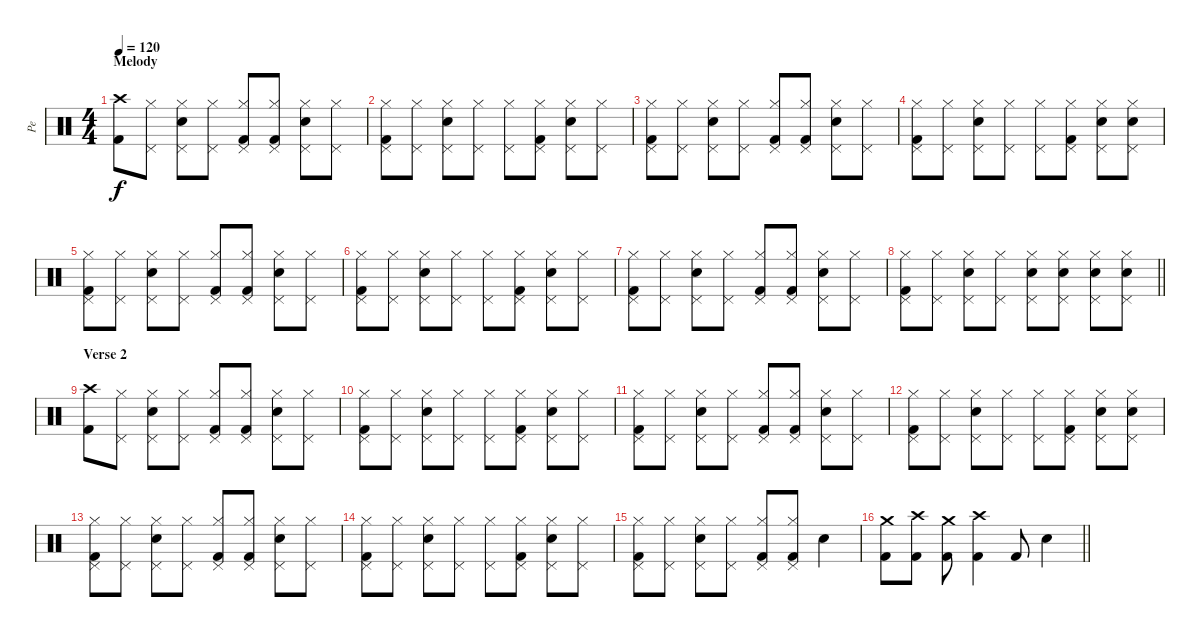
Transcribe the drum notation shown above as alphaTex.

\track ("Pe" "Pe") {instrument percussion}
\staff {score}
\articulation defaults
\ts (4 4)
\section ("" "Melody")
\tempo 120
\clef neutral
\ks c
("Kick (hit) 2" "Crash high (hit)").8{dy f} ("Hi-Hat (closed)" "Pedal Hi-Hat (hit)").8 ("Snare (hit) 2" "Hi-Hat (closed)" "Pedal Hi-Hat (hit)").8 ("Hi-Hat (closed)" "Pedal Hi-Hat (hit)").8 ("Kick (hit) 2" "Hi-Hat (closed)" "Pedal Hi-Hat (hit)").8 ("Kick (hit) 2" "Hi-Hat (closed)" "Pedal Hi-Hat (hit)").8 ("Snare (hit) 2" "Hi-Hat (closed)" "Pedal Hi-Hat (hit)").8 ("Hi-Hat (closed)" "Pedal Hi-Hat (hit)").8 |
("Kick (hit) 2" "Hi-Hat (closed)" "Pedal Hi-Hat (hit)").8 ("Hi-Hat (closed)" "Pedal Hi-Hat (hit)").8 ("Snare (hit) 2" "Hi-Hat (closed)" "Pedal Hi-Hat (hit)").8 ("Hi-Hat (closed)" "Pedal Hi-Hat (hit)").8 ("Hi-Hat (closed)" "Pedal Hi-Hat (hit)").8 ("Kick (hit) 2" "Hi-Hat (closed)" "Pedal Hi-Hat (hit)").8 ("Snare (hit) 2" "Hi-Hat (closed)" "Pedal Hi-Hat (hit)").8 ("Hi-Hat (closed)" "Pedal Hi-Hat (hit)").8 |
("Kick (hit) 2" "Hi-Hat (closed)" "Pedal Hi-Hat (hit)").8 ("Hi-Hat (closed)" "Pedal Hi-Hat (hit)").8 ("Snare (hit) 2" "Hi-Hat (closed)" "Pedal Hi-Hat (hit)").8 ("Hi-Hat (closed)" "Pedal Hi-Hat (hit)").8 ("Kick (hit) 2" "Hi-Hat (closed)" "Pedal Hi-Hat (hit)").8 ("Kick (hit) 2" "Hi-Hat (closed)" "Pedal Hi-Hat (hit)").8 ("Snare (hit) 2" "Hi-Hat (closed)" "Pedal Hi-Hat (hit)").8 ("Hi-Hat (closed)" "Pedal Hi-Hat (hit)").8 |
("Kick (hit) 2" "Hi-Hat (closed)" "Pedal Hi-Hat (hit)").8 ("Hi-Hat (closed)" "Pedal Hi-Hat (hit)").8 ("Snare (hit) 2" "Hi-Hat (closed)" "Pedal Hi-Hat (hit)").8 ("Hi-Hat (closed)" "Pedal Hi-Hat (hit)").8 ("Hi-Hat (closed)" "Pedal Hi-Hat (hit)").8 ("Kick (hit) 2" "Hi-Hat (closed)" "Pedal Hi-Hat (hit)").8 ("Snare (hit) 2" "Hi-Hat (closed)" "Pedal Hi-Hat (hit)").8 ("Snare (hit) 2" "Hi-Hat (closed)" "Pedal Hi-Hat (hit)").8 |
("Kick (hit) 2" "Hi-Hat (closed)" "Pedal Hi-Hat (hit)").8 ("Hi-Hat (closed)" "Pedal Hi-Hat (hit)").8 ("Snare (hit) 2" "Hi-Hat (closed)" "Pedal Hi-Hat (hit)").8 ("Hi-Hat (closed)" "Pedal Hi-Hat (hit)").8 ("Kick (hit) 2" "Hi-Hat (closed)" "Pedal Hi-Hat (hit)").8 ("Kick (hit) 2" "Hi-Hat (closed)" "Pedal Hi-Hat (hit)").8 ("Snare (hit) 2" "Hi-Hat (closed)" "Pedal Hi-Hat (hit)").8 ("Hi-Hat (closed)" "Pedal Hi-Hat (hit)").8 |
("Kick (hit) 2" "Hi-Hat (closed)" "Pedal Hi-Hat (hit)").8 ("Hi-Hat (closed)" "Pedal Hi-Hat (hit)").8 ("Snare (hit) 2" "Hi-Hat (closed)" "Pedal Hi-Hat (hit)").8 ("Hi-Hat (closed)" "Pedal Hi-Hat (hit)").8 ("Hi-Hat (closed)" "Pedal Hi-Hat (hit)").8 ("Kick (hit) 2" "Hi-Hat (closed)" "Pedal Hi-Hat (hit)").8 ("Snare (hit) 2" "Hi-Hat (closed)" "Pedal Hi-Hat (hit)").8 ("Hi-Hat (closed)" "Pedal Hi-Hat (hit)").8 |
("Kick (hit) 2" "Hi-Hat (closed)" "Pedal Hi-Hat (hit)").8 ("Hi-Hat (closed)" "Pedal Hi-Hat (hit)").8 ("Snare (hit) 2" "Hi-Hat (closed)" "Pedal Hi-Hat (hit)").8 ("Hi-Hat (closed)" "Pedal Hi-Hat (hit)").8 ("Kick (hit) 2" "Hi-Hat (closed)" "Pedal Hi-Hat (hit)").8 ("Kick (hit) 2" "Hi-Hat (closed)" "Pedal Hi-Hat (hit)").8 ("Snare (hit) 2" "Hi-Hat (closed)" "Pedal Hi-Hat (hit)").8 ("Hi-Hat (closed)" "Pedal Hi-Hat (hit)").8 |
\barLineRight lightlight
("Kick (hit) 2" "Hi-Hat (closed)" "Pedal Hi-Hat (hit)").8 ("Hi-Hat (closed)" "Pedal Hi-Hat (hit)").8 ("Snare (hit) 2" "Hi-Hat (closed)" "Pedal Hi-Hat (hit)").8 ("Hi-Hat (closed)" "Pedal Hi-Hat (hit)").8 ("Snare (hit) 2" "Hi-Hat (closed)" "Pedal Hi-Hat (hit)").8 ("Snare (hit) 2" "Hi-Hat (closed)" "Pedal Hi-Hat (hit)").8 ("Snare (hit) 2" "Hi-Hat (closed)" "Pedal Hi-Hat (hit)").8 ("Snare (hit) 2" "Hi-Hat (closed)" "Pedal Hi-Hat (hit)").8 |
\section ("" "Verse 2")
("Kick (hit) 2" "Crash high (hit)").8 ("Hi-Hat (closed)" "Pedal Hi-Hat (hit)").8 ("Snare (hit) 2" "Hi-Hat (closed)" "Pedal Hi-Hat (hit)").8 ("Hi-Hat (closed)" "Pedal Hi-Hat (hit)").8 ("Kick (hit) 2" "Hi-Hat (closed)" "Pedal Hi-Hat (hit)").8 ("Kick (hit) 2" "Hi-Hat (closed)" "Pedal Hi-Hat (hit)").8 ("Snare (hit) 2" "Hi-Hat (closed)" "Pedal Hi-Hat (hit)").8 ("Hi-Hat (closed)" "Pedal Hi-Hat (hit)").8 |
("Kick (hit) 2" "Hi-Hat (closed)" "Pedal Hi-Hat (hit)").8 ("Hi-Hat (closed)" "Pedal Hi-Hat (hit)").8 ("Snare (hit) 2" "Hi-Hat (closed)" "Pedal Hi-Hat (hit)").8 ("Hi-Hat (closed)" "Pedal Hi-Hat (hit)").8 ("Hi-Hat (closed)" "Pedal Hi-Hat (hit)").8 ("Kick (hit) 2" "Hi-Hat (closed)" "Pedal Hi-Hat (hit)").8 ("Snare (hit) 2" "Hi-Hat (closed)" "Pedal Hi-Hat (hit)").8 ("Hi-Hat (closed)" "Pedal Hi-Hat (hit)").8 |
("Kick (hit) 2" "Hi-Hat (closed)" "Pedal Hi-Hat (hit)").8 ("Hi-Hat (closed)" "Pedal Hi-Hat (hit)").8 ("Snare (hit) 2" "Hi-Hat (closed)" "Pedal Hi-Hat (hit)").8 ("Hi-Hat (closed)" "Pedal Hi-Hat (hit)").8 ("Kick (hit) 2" "Hi-Hat (closed)" "Pedal Hi-Hat (hit)").8 ("Kick (hit) 2" "Hi-Hat (closed)" "Pedal Hi-Hat (hit)").8 ("Snare (hit) 2" "Hi-Hat (closed)" "Pedal Hi-Hat (hit)").8 ("Hi-Hat (closed)" "Pedal Hi-Hat (hit)").8 |
("Kick (hit) 2" "Hi-Hat (closed)" "Pedal Hi-Hat (hit)").8 ("Hi-Hat (closed)" "Pedal Hi-Hat (hit)").8 ("Snare (hit) 2" "Hi-Hat (closed)" "Pedal Hi-Hat (hit)").8 ("Hi-Hat (closed)" "Pedal Hi-Hat (hit)").8 ("Hi-Hat (closed)" "Pedal Hi-Hat (hit)").8 ("Kick (hit) 2" "Hi-Hat (closed)" "Pedal Hi-Hat (hit)").8 ("Snare (hit) 2" "Hi-Hat (closed)" "Pedal Hi-Hat (hit)").8 ("Snare (hit) 2" "Hi-Hat (closed)" "Pedal Hi-Hat (hit)").8 |
("Kick (hit) 2" "Hi-Hat (closed)" "Pedal Hi-Hat (hit)").8 ("Hi-Hat (closed)" "Pedal Hi-Hat (hit)").8 ("Snare (hit) 2" "Hi-Hat (closed)" "Pedal Hi-Hat (hit)").8 ("Hi-Hat (closed)" "Pedal Hi-Hat (hit)").8 ("Kick (hit) 2" "Hi-Hat (closed)" "Pedal Hi-Hat (hit)").8 ("Kick (hit) 2" "Hi-Hat (closed)" "Pedal Hi-Hat (hit)").8 ("Snare (hit) 2" "Hi-Hat (closed)" "Pedal Hi-Hat (hit)").8 ("Hi-Hat (closed)" "Pedal Hi-Hat (hit)").8 |
("Kick (hit) 2" "Hi-Hat (closed)" "Pedal Hi-Hat (hit)").8 ("Hi-Hat (closed)" "Pedal Hi-Hat (hit)").8 ("Snare (hit) 2" "Hi-Hat (closed)" "Pedal Hi-Hat (hit)").8 ("Hi-Hat (closed)" "Pedal Hi-Hat (hit)").8 ("Hi-Hat (closed)" "Pedal Hi-Hat (hit)").8 ("Kick (hit) 2" "Hi-Hat (closed)" "Pedal Hi-Hat (hit)").8 ("Snare (hit) 2" "Hi-Hat (closed)" "Pedal Hi-Hat (hit)").8 ("Hi-Hat (closed)" "Pedal Hi-Hat (hit)").8 |
("Kick (hit) 2" "Hi-Hat (closed)" "Pedal Hi-Hat (hit)").8 ("Hi-Hat (closed)" "Pedal Hi-Hat (hit)").8 ("Snare (hit) 2" "Hi-Hat (closed)" "Pedal Hi-Hat (hit)").8 ("Hi-Hat (closed)" "Pedal Hi-Hat (hit)").8 ("Kick (hit) 2" "Hi-Hat (closed)" "Pedal Hi-Hat (hit)").8 ("Kick (hit) 2" "Hi-Hat (closed)" "Pedal Hi-Hat (hit)").8 "Snare (hit) 2".4 |
\barLineRight lightlight
("Kick (hit) 2" "Crash medium (hit)").8 ("Kick (hit) 2" "Crash high (hit)").8 ("Kick (hit) 2" "Crash medium (hit)").8 ("Kick (hit) 2" "Crash high (hit)").4 "Kick (hit) 2".8 "Snare (hit) 2".4
